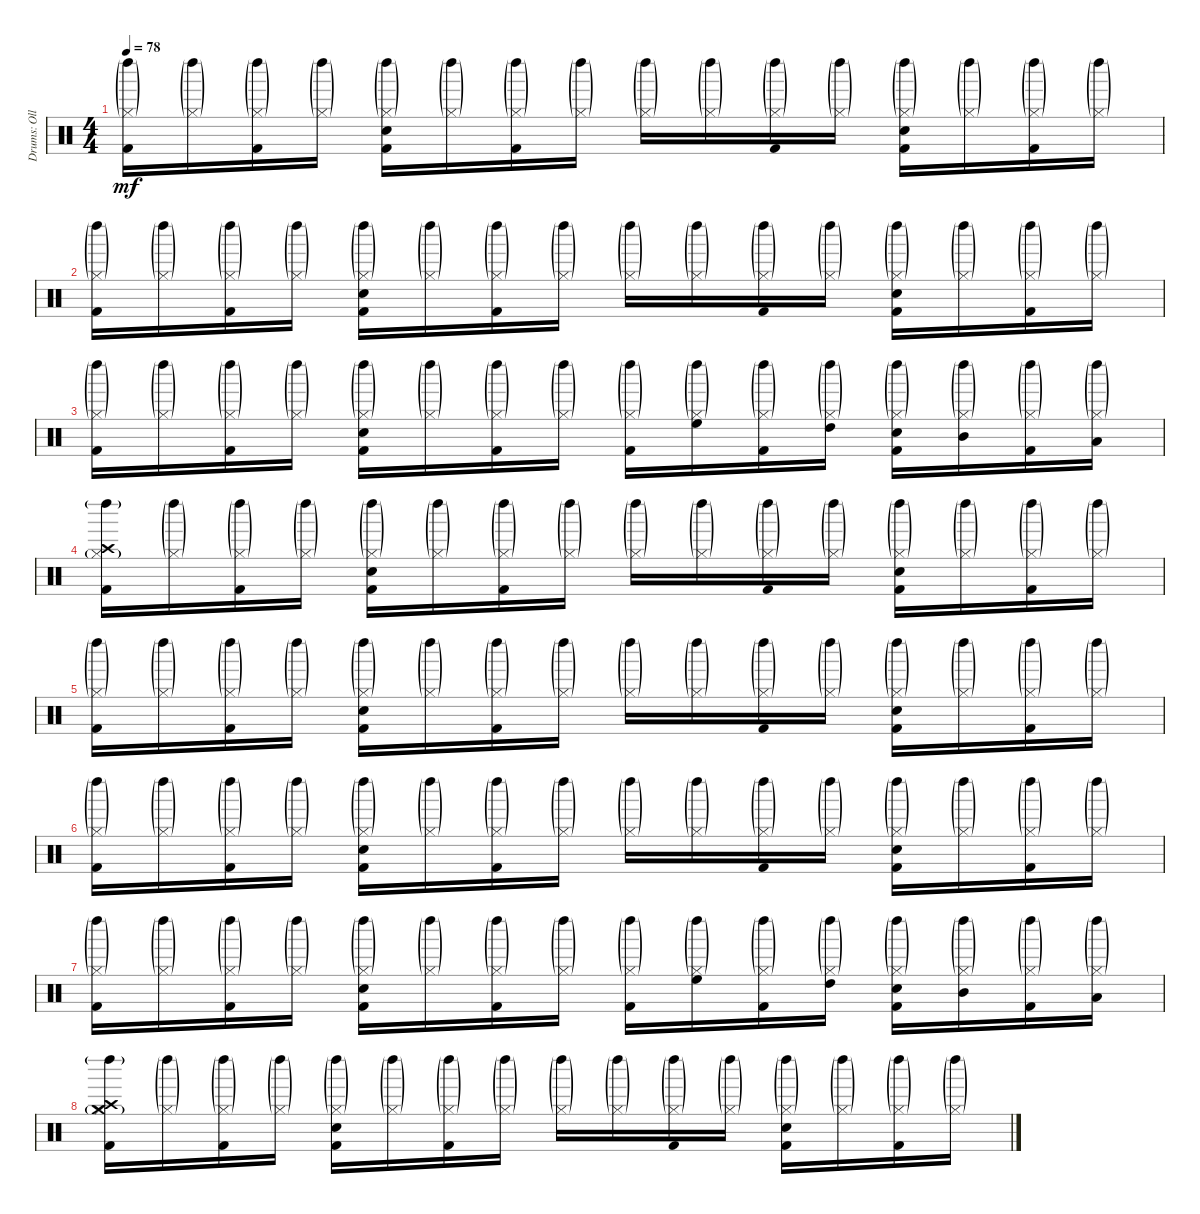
\track ("Drums: Olle Romeo" "Drums: Oll") {instrument percussion}
\staff {score}
\articulation defaults
\ts (4 4)
\tempo 78
\clef neutral
\ks c
("Hi-Hat (closed)"{g} "Kick (hit) 2" "Left Maraca (hit)"{g}).16{dy mf} ("Hi-Hat (closed)"{g} "Left Maraca (hit)"{g}).16 ("Hi-Hat (closed)"{g} "Kick (hit) 2" "Left Maraca (hit)"{g}).16 ("Hi-Hat (closed)"{g} "Left Maraca (hit)"{g}).16 ("Hi-Hat (closed)"{g} "Snare (hit) 2" "Kick (hit) 2" "Left Maraca (hit)"{g}).16 ("Hi-Hat (closed)"{g} "Left Maraca (hit)"{g}).16 ("Hi-Hat (closed)"{g} "Kick (hit) 2" "Left Maraca (hit)"{g}).16 ("Hi-Hat (closed)"{g} "Left Maraca (hit)"{g}).16 ("Hi-Hat (closed)"{g} "Left Maraca (hit)"{g}).16 ("Hi-Hat (closed)"{g} "Left Maraca (hit)"{g}).16 ("Hi-Hat (closed)"{g} "Kick (hit) 2" "Left Maraca (hit)"{g}).16 ("Hi-Hat (closed)"{g} "Left Maraca (hit)"{g}).16 ("Hi-Hat (closed)"{g} "Snare (hit) 2" "Kick (hit) 2" "Left Maraca (hit)"{g}).16 ("Hi-Hat (closed)"{g} "Left Maraca (hit)"{g}).16 ("Hi-Hat (closed)"{g} "Kick (hit) 2" "Left Maraca (hit)"{g}).16 ("Hi-Hat (closed)"{g} "Left Maraca (hit)"{g}).16 |
("Hi-Hat (closed)"{g} "Kick (hit) 2" "Left Maraca (hit)"{g}).16 ("Hi-Hat (closed)"{g} "Left Maraca (hit)"{g}).16 ("Hi-Hat (closed)"{g} "Kick (hit) 2" "Left Maraca (hit)"{g}).16 ("Hi-Hat (closed)"{g} "Left Maraca (hit)"{g}).16 ("Hi-Hat (closed)"{g} "Snare (hit) 2" "Kick (hit) 2" "Left Maraca (hit)"{g}).16 ("Hi-Hat (closed)"{g} "Left Maraca (hit)"{g}).16 ("Hi-Hat (closed)"{g} "Kick (hit) 2" "Left Maraca (hit)"{g}).16 ("Hi-Hat (closed)"{g} "Left Maraca (hit)"{g}).16 ("Hi-Hat (closed)"{g} "Left Maraca (hit)"{g}).16 ("Hi-Hat (closed)"{g} "Left Maraca (hit)"{g}).16 ("Hi-Hat (closed)"{g} "Kick (hit) 2" "Left Maraca (hit)"{g}).16 ("Hi-Hat (closed)"{g} "Left Maraca (hit)"{g}).16 ("Hi-Hat (closed)"{g} "Snare (hit) 2" "Kick (hit) 2" "Left Maraca (hit)"{g}).16 ("Hi-Hat (closed)"{g} "Left Maraca (hit)"{g}).16 ("Hi-Hat (closed)"{g} "Kick (hit) 2" "Left Maraca (hit)"{g}).16 ("Hi-Hat (closed)"{g} "Left Maraca (hit)"{g}).16 |
("Hi-Hat (closed)"{g} "Kick (hit) 2" "Left Maraca (hit)"{g}).16 ("Hi-Hat (closed)"{g} "Left Maraca (hit)"{g}).16 ("Hi-Hat (closed)"{g} "Kick (hit) 2" "Left Maraca (hit)"{g}).16 ("Hi-Hat (closed)"{g} "Left Maraca (hit)"{g}).16 ("Hi-Hat (closed)"{g} "Snare (hit) 2" "Kick (hit) 2" "Left Maraca (hit)"{g}).16 ("Hi-Hat (closed)"{g} "Left Maraca (hit)"{g}).16 ("Hi-Hat (closed)"{g} "Kick (hit) 2" "Left Maraca (hit)"{g}).16 ("Hi-Hat (closed)"{g} "Left Maraca (hit)"{g}).16 ("Hi-Hat (closed)"{g} "Kick (hit) 2" "Left Maraca (hit)"{g}).16 ("Hi-Hat (closed)"{g} "High Floor Tom (hit)" "Left Maraca (hit)"{g}).16 ("Hi-Hat (closed)"{g} "Kick (hit) 2" "Left Maraca (hit)"{g}).16 ("Hi-Hat (closed)"{g} "High Tom (hit)" "Left Maraca (hit)"{g}).16 ("Hi-Hat (closed)"{g} "Snare (hit) 2" "Kick (hit) 2" "Left Maraca (hit)"{g}).16 ("Hi-Hat (closed)"{g} "Mid Tom (hit)" "Left Maraca (hit)"{g}).16 ("Hi-Hat (closed)"{g} "Kick (hit) 2" "Left Maraca (hit)"{g}).16 ("Hi-Hat (closed)"{g} "Low Tom (hit)" "Left Maraca (hit)"{g}).16 |
("Crash high (hit)" "Hi-Hat (closed)"{g} "Kick (hit) 2" "Left Maraca (hit)"{g}).16 ("Hi-Hat (closed)"{g} "Left Maraca (hit)"{g}).16 ("Hi-Hat (closed)"{g} "Kick (hit) 2" "Left Maraca (hit)"{g}).16 ("Hi-Hat (closed)"{g} "Left Maraca (hit)"{g}).16 ("Hi-Hat (closed)"{g} "Snare (hit) 2" "Kick (hit) 2" "Left Maraca (hit)"{g}).16 ("Hi-Hat (closed)"{g} "Left Maraca (hit)"{g}).16 ("Hi-Hat (closed)"{g} "Kick (hit) 2" "Left Maraca (hit)"{g}).16 ("Hi-Hat (closed)"{g} "Left Maraca (hit)"{g}).16 ("Hi-Hat (closed)"{g} "Left Maraca (hit)"{g}).16 ("Hi-Hat (closed)"{g} "Left Maraca (hit)"{g}).16 ("Hi-Hat (closed)"{g} "Kick (hit) 2" "Left Maraca (hit)"{g}).16 ("Hi-Hat (closed)"{g} "Left Maraca (hit)"{g}).16 ("Hi-Hat (closed)"{g} "Snare (hit) 2" "Kick (hit) 2" "Left Maraca (hit)"{g}).16 ("Hi-Hat (closed)"{g} "Left Maraca (hit)"{g}).16 ("Hi-Hat (closed)"{g} "Kick (hit) 2" "Left Maraca (hit)"{g}).16 ("Hi-Hat (closed)"{g} "Left Maraca (hit)"{g}).16 |
("Hi-Hat (closed)"{g} "Kick (hit) 2" "Left Maraca (hit)"{g}).16 ("Hi-Hat (closed)"{g} "Left Maraca (hit)"{g}).16 ("Hi-Hat (closed)"{g} "Kick (hit) 2" "Left Maraca (hit)"{g}).16 ("Hi-Hat (closed)"{g} "Left Maraca (hit)"{g}).16 ("Hi-Hat (closed)"{g} "Snare (hit) 2" "Kick (hit) 2" "Left Maraca (hit)"{g}).16 ("Hi-Hat (closed)"{g} "Left Maraca (hit)"{g}).16 ("Hi-Hat (closed)"{g} "Kick (hit) 2" "Left Maraca (hit)"{g}).16 ("Hi-Hat (closed)"{g} "Left Maraca (hit)"{g}).16 ("Hi-Hat (closed)"{g} "Left Maraca (hit)"{g}).16 ("Hi-Hat (closed)"{g} "Left Maraca (hit)"{g}).16 ("Hi-Hat (closed)"{g} "Kick (hit) 2" "Left Maraca (hit)"{g}).16 ("Hi-Hat (closed)"{g} "Left Maraca (hit)"{g}).16 ("Hi-Hat (closed)"{g} "Snare (hit) 2" "Kick (hit) 2" "Left Maraca (hit)"{g}).16 ("Hi-Hat (closed)"{g} "Left Maraca (hit)"{g}).16 ("Hi-Hat (closed)"{g} "Kick (hit) 2" "Left Maraca (hit)"{g}).16 ("Hi-Hat (closed)"{g} "Left Maraca (hit)"{g}).16 |
("Hi-Hat (closed)"{g} "Kick (hit) 2" "Left Maraca (hit)"{g}).16 ("Hi-Hat (closed)"{g} "Left Maraca (hit)"{g}).16 ("Hi-Hat (closed)"{g} "Kick (hit) 2" "Left Maraca (hit)"{g}).16 ("Hi-Hat (closed)"{g} "Left Maraca (hit)"{g}).16 ("Hi-Hat (closed)"{g} "Snare (hit) 2" "Kick (hit) 2" "Left Maraca (hit)"{g}).16 ("Hi-Hat (closed)"{g} "Left Maraca (hit)"{g}).16 ("Hi-Hat (closed)"{g} "Kick (hit) 2" "Left Maraca (hit)"{g}).16 ("Hi-Hat (closed)"{g} "Left Maraca (hit)"{g}).16 ("Hi-Hat (closed)"{g} "Left Maraca (hit)"{g}).16 ("Hi-Hat (closed)"{g} "Left Maraca (hit)"{g}).16 ("Hi-Hat (closed)"{g} "Kick (hit) 2" "Left Maraca (hit)"{g}).16 ("Hi-Hat (closed)"{g} "Left Maraca (hit)"{g}).16 ("Hi-Hat (closed)"{g} "Snare (hit) 2" "Kick (hit) 2" "Left Maraca (hit)"{g}).16 ("Hi-Hat (closed)"{g} "Left Maraca (hit)"{g}).16 ("Hi-Hat (closed)"{g} "Kick (hit) 2" "Left Maraca (hit)"{g}).16 ("Hi-Hat (closed)"{g} "Left Maraca (hit)"{g}).16 |
("Hi-Hat (closed)"{g} "Kick (hit) 2" "Left Maraca (hit)"{g}).16 ("Hi-Hat (closed)"{g} "Left Maraca (hit)"{g}).16 ("Hi-Hat (closed)"{g} "Kick (hit) 2" "Left Maraca (hit)"{g}).16 ("Hi-Hat (closed)"{g} "Left Maraca (hit)"{g}).16 ("Hi-Hat (closed)"{g} "Snare (hit) 2" "Kick (hit) 2" "Left Maraca (hit)"{g}).16 ("Hi-Hat (closed)"{g} "Left Maraca (hit)"{g}).16 ("Hi-Hat (closed)"{g} "Kick (hit) 2" "Left Maraca (hit)"{g}).16 ("Hi-Hat (closed)"{g} "Left Maraca (hit)"{g}).16 ("Hi-Hat (closed)"{g} "Kick (hit) 2" "Left Maraca (hit)"{g}).16 ("Hi-Hat (closed)"{g} "High Floor Tom (hit)" "Left Maraca (hit)"{g}).16 ("Hi-Hat (closed)"{g} "Kick (hit) 2" "Left Maraca (hit)"{g}).16 ("Hi-Hat (closed)"{g} "High Tom (hit)" "Left Maraca (hit)"{g}).16 ("Hi-Hat (closed)"{g} "Snare (hit) 2" "Kick (hit) 2" "Left Maraca (hit)"{g}).16 ("Hi-Hat (closed)"{g} "Mid Tom (hit)" "Left Maraca (hit)"{g}).16 ("Hi-Hat (closed)"{g} "Kick (hit) 2" "Left Maraca (hit)"{g}).16 ("Hi-Hat (closed)"{g} "Low Tom (hit)" "Left Maraca (hit)"{g}).16 |
("Crash medium (hit)" "Hi-Hat (closed)"{g} "Crash high (hit)" "Kick (hit) 2" "Left Maraca (hit)"{g}).16 ("Hi-Hat (closed)"{g} "Left Maraca (hit)"{g}).16 ("Hi-Hat (closed)"{g} "Kick (hit) 2" "Left Maraca (hit)"{g}).16 ("Hi-Hat (closed)"{g} "Left Maraca (hit)"{g}).16 ("Hi-Hat (closed)"{g} "Snare (hit) 2" "Kick (hit) 2" "Left Maraca (hit)"{g}).16 ("Hi-Hat (closed)"{g} "Left Maraca (hit)"{g}).16 ("Hi-Hat (closed)"{g} "Kick (hit) 2" "Left Maraca (hit)"{g}).16 ("Hi-Hat (closed)"{g} "Left Maraca (hit)"{g}).16 ("Hi-Hat (closed)"{g} "Left Maraca (hit)"{g}).16 ("Hi-Hat (closed)"{g} "Left Maraca (hit)"{g}).16 ("Hi-Hat (closed)"{g} "Kick (hit) 2" "Left Maraca (hit)"{g}).16 ("Hi-Hat (closed)"{g} "Left Maraca (hit)"{g}).16 ("Hi-Hat (closed)"{g} "Snare (hit) 2" "Kick (hit) 2" "Left Maraca (hit)"{g}).16 ("Hi-Hat (closed)"{g} "Left Maraca (hit)"{g}).16 ("Hi-Hat (closed)"{g} "Kick (hit) 2" "Left Maraca (hit)"{g}).16 ("Hi-Hat (closed)"{g} "Left Maraca (hit)"{g}).16
